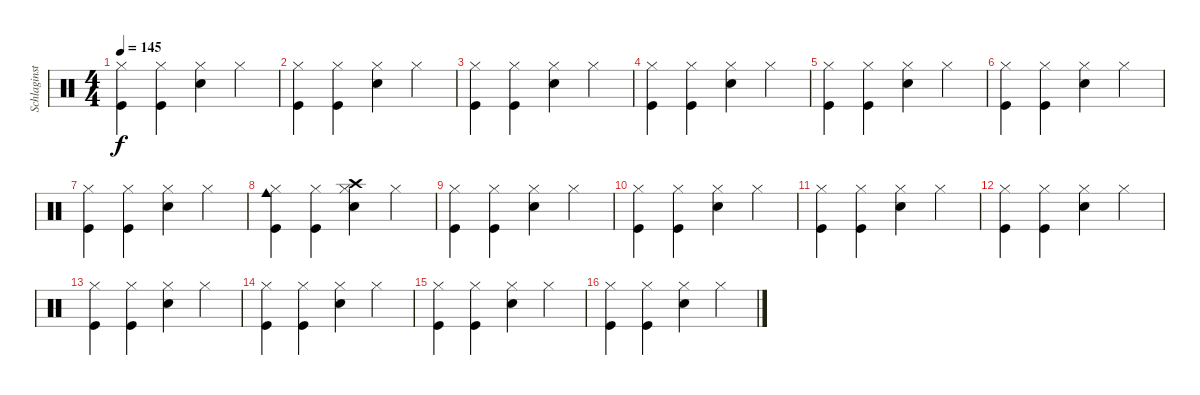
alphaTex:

\track ("Schlaginstrumente - Auswahl" "Schlaginst") {instrument percussion}
\staff {score}
\articulation defaults
\ts (4 4)
\tempo 145
\clef neutral
\ks c
("Kick (hit)" "Hi-Hat (closed)").4{dy f} ("Kick (hit)" "Hi-Hat (closed)").4 ("Snare (hit) 2" "Hi-Hat (closed)").4 "Hi-Hat (closed)".4 |
("Kick (hit)" "Hi-Hat (closed)").4 ("Kick (hit)" "Hi-Hat (closed)").4 ("Snare (hit) 2" "Hi-Hat (closed)").4 "Hi-Hat (closed)".4 |
("Kick (hit)" "Hi-Hat (closed)").4 ("Kick (hit)" "Hi-Hat (closed)").4 ("Snare (hit) 2" "Hi-Hat (closed)").4 "Hi-Hat (closed)".4 |
("Kick (hit)" "Hi-Hat (closed)").4 ("Kick (hit)" "Hi-Hat (closed)").4 ("Snare (hit) 2" "Hi-Hat (closed)").4 "Hi-Hat (closed)".4 |
("Kick (hit)" "Hi-Hat (closed)").4 ("Kick (hit)" "Hi-Hat (closed)").4 ("Snare (hit) 2" "Hi-Hat (closed)").4 "Hi-Hat (closed)".4 |
("Kick (hit)" "Hi-Hat (closed)").4 ("Kick (hit)" "Hi-Hat (closed)").4 ("Snare (hit) 2" "Hi-Hat (closed)").4 "Hi-Hat (closed)".4 |
("Kick (hit)" "Hi-Hat (closed)").4 ("Kick (hit)" "Hi-Hat (closed)").4 ("Snare (hit) 2" "Hi-Hat (closed)").4 "Hi-Hat (closed)".4 |
("Kick (hit)" "Hi-Hat (closed)" "Cowbell medium (hit)").4 ("Kick (hit)" "Hi-Hat (closed)").4 ("Snare (hit) 2" "Hi-Hat (closed)" "Crash high (hit)").4 "Hi-Hat (closed)".4 |
("Kick (hit)" "Hi-Hat (closed)").4 ("Kick (hit)" "Hi-Hat (closed)").4 ("Snare (hit) 2" "Hi-Hat (closed)").4 "Hi-Hat (closed)".4 |
("Kick (hit)" "Hi-Hat (closed)").4 ("Kick (hit)" "Hi-Hat (closed)").4 ("Snare (hit) 2" "Hi-Hat (closed)").4 "Hi-Hat (closed)".4 |
("Kick (hit)" "Hi-Hat (closed)").4 ("Kick (hit)" "Hi-Hat (closed)").4 ("Snare (hit) 2" "Hi-Hat (closed)").4 "Hi-Hat (closed)".4 |
("Kick (hit)" "Hi-Hat (closed)").4 ("Kick (hit)" "Hi-Hat (closed)").4 ("Snare (hit) 2" "Hi-Hat (closed)").4 "Hi-Hat (closed)".4 |
("Kick (hit)" "Hi-Hat (closed)").4 ("Kick (hit)" "Hi-Hat (closed)").4 ("Snare (hit) 2" "Hi-Hat (closed)").4 "Hi-Hat (closed)".4 |
("Kick (hit)" "Hi-Hat (closed)").4 ("Kick (hit)" "Hi-Hat (closed)").4 ("Snare (hit) 2" "Hi-Hat (closed)").4 "Hi-Hat (closed)".4 |
("Kick (hit)" "Hi-Hat (closed)").4 ("Kick (hit)" "Hi-Hat (closed)").4 ("Snare (hit) 2" "Hi-Hat (closed)").4 "Hi-Hat (closed)".4 |
("Kick (hit)" "Hi-Hat (closed)").4 ("Kick (hit)" "Hi-Hat (closed)").4 ("Snare (hit) 2" "Hi-Hat (closed)").4 "Hi-Hat (closed)".4
